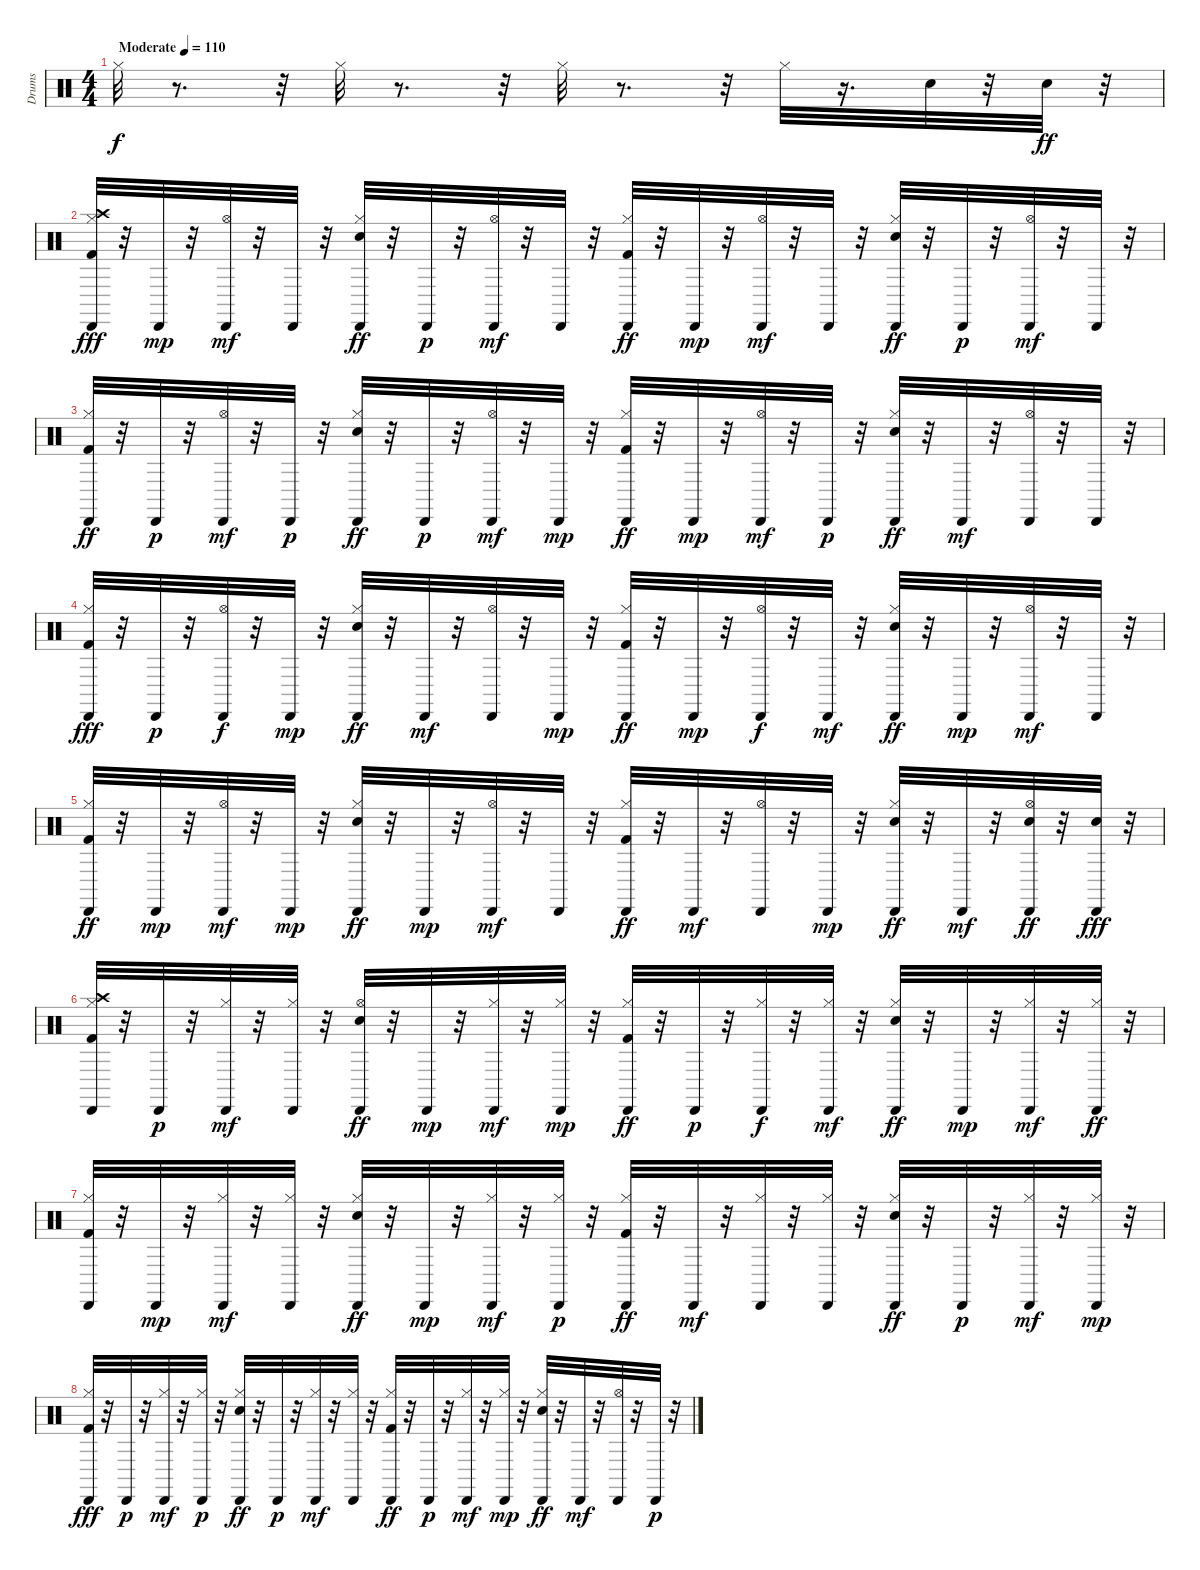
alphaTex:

\track ("Drums" "Drums") {instrument percussion}
\staff {score}
\articulation defaults
\ts (4 4)
\tempo (110 "Moderate")
\clef neutral
\ks c "Hi-Hat (closed)".32{dy f}
r.8{d} r.32 "Hi-Hat (closed)".32 r.8{d} r.32 "Hi-Hat (closed)".32 r.8{d} r.32 "Hi-Hat (closed)".32 r.16{d} "Snare (hit) 2".32 r.32 "Snare (hit) 2".32{dy ff} r.32 |
("Cabasa (hit)" "Crash high (hit)" "Hi-Hat (closed)" "Kick (hit) 2").32{dy fff} r.32 "Cabasa (hit)".32{dy mp} r.32 ("Hi-Hat (open)" "Cabasa (hit)").32{dy mf} r.32 "Cabasa (hit)".32 r.32 ("Cabasa (hit)" "Hi-Hat (closed)" "Snare (hit) 2").32{dy ff} r.32 "Cabasa (hit)".32{dy p} r.32 ("Hi-Hat (open)" "Cabasa (hit)").32{dy mf} r.32 "Cabasa (hit)".32 r.32 ("Cabasa (hit)" "Hi-Hat (closed)" "Kick (hit) 2").32{dy ff} r.32 "Cabasa (hit)".32{dy mp} r.32 ("Hi-Hat (open)" "Cabasa (hit)").32{dy mf} r.32 "Cabasa (hit)".32 r.32 ("Cabasa (hit)" "Hi-Hat (closed)" "Snare (hit) 2").32{dy ff} r.32 "Cabasa (hit)".32{dy p} r.32 ("Hi-Hat (open)" "Cabasa (hit)").32{dy mf} r.32 "Cabasa (hit)".32 r.32 |
("Cabasa (hit)" "Hi-Hat (closed)" "Kick (hit) 2").32{dy ff} r.32 "Cabasa (hit)".32{dy p} r.32 ("Hi-Hat (open)" "Cabasa (hit)").32{dy mf} r.32 "Cabasa (hit)".32{dy p} r.32 ("Cabasa (hit)" "Hi-Hat (closed)" "Snare (hit) 2").32{dy ff} r.32 "Cabasa (hit)".32{dy p} r.32 ("Hi-Hat (open)" "Cabasa (hit)").32{dy mf} r.32 "Cabasa (hit)".32{dy mp} r.32 ("Cabasa (hit)" "Hi-Hat (closed)" "Kick (hit) 2").32{dy ff} r.32 "Cabasa (hit)".32{dy mp} r.32 ("Hi-Hat (open)" "Cabasa (hit)").32{dy mf} r.32 "Cabasa (hit)".32{dy p} r.32 ("Cabasa (hit)" "Hi-Hat (closed)" "Snare (hit) 2").32{dy ff} r.32 "Cabasa (hit)".32{dy mf} r.32 ("Hi-Hat (open)" "Cabasa (hit)").32 r.32 "Cabasa (hit)".32 r.32 |
("Cabasa (hit)" "Hi-Hat (closed)" "Kick (hit) 2").32{dy fff} r.32 "Cabasa (hit)".32{dy p} r.32 ("Hi-Hat (open)" "Cabasa (hit)").32{dy f} r.32 "Cabasa (hit)".32{dy mp} r.32 ("Cabasa (hit)" "Hi-Hat (closed)" "Snare (hit) 2").32{dy ff} r.32 "Cabasa (hit)".32{dy mf} r.32 ("Hi-Hat (open)" "Cabasa (hit)").32 r.32 "Cabasa (hit)".32{dy mp} r.32 ("Cabasa (hit)" "Hi-Hat (closed)" "Kick (hit) 2").32{dy ff} r.32 "Cabasa (hit)".32{dy mp} r.32 ("Hi-Hat (open)" "Cabasa (hit)").32{dy f} r.32 "Cabasa (hit)".32{dy mf} r.32 ("Cabasa (hit)" "Hi-Hat (closed)" "Snare (hit) 2").32{dy ff} r.32 "Cabasa (hit)".32{dy mp} r.32 ("Hi-Hat (open)" "Cabasa (hit)").32{dy mf} r.32 "Cabasa (hit)".32 r.32 |
("Cabasa (hit)" "Hi-Hat (closed)" "Kick (hit) 2").32{dy ff} r.32 "Cabasa (hit)".32{dy mp} r.32 ("Hi-Hat (open)" "Cabasa (hit)").32{dy mf} r.32 "Cabasa (hit)".32{dy mp} r.32 ("Cabasa (hit)" "Hi-Hat (closed)" "Snare (hit) 2").32{dy ff} r.32 "Cabasa (hit)".32{dy mp} r.32 ("Hi-Hat (open)" "Cabasa (hit)").32{dy mf} r.32 "Cabasa (hit)".32 r.32 ("Cabasa (hit)" "Hi-Hat (closed)" "Kick (hit) 2").32{dy ff} r.32 "Cabasa (hit)".32{dy mf} r.32 ("Hi-Hat (open)" "Cabasa (hit)").32 r.32 "Cabasa (hit)".32{dy mp} r.32 ("Cabasa (hit)" "Hi-Hat (closed)" "Snare (hit) 2").32{dy ff} r.32 "Cabasa (hit)".32{dy mf} r.32 ("Hi-Hat (open)" "Cabasa (hit)" "Snare (hit) 2").32{dy ff} r.32 ("Cabasa (hit)" "Snare (hit) 2").32{dy fff} r.32 |
("Cabasa (hit)" "Crash high (hit)" "Hi-Hat (closed)" "Kick (hit) 2").32 r.32 "Cabasa (hit)".32{dy p} r.32 ("Cabasa (hit)" "Hi-Hat (closed)").32{dy mf} r.32 ("Cabasa (hit)" "Hi-Hat (closed)").32 r.32 ("Hi-Hat (open)" "Cabasa (hit)" "Snare (hit) 2").32{dy ff} r.32 "Cabasa (hit)".32{dy mp} r.32 ("Cabasa (hit)" "Hi-Hat (closed)").32{dy mf} r.32 ("Cabasa (hit)" "Hi-Hat (closed)").32{dy mp} r.32 ("Cabasa (hit)" "Hi-Hat (closed)" "Kick (hit) 2").32{dy ff} r.32 "Cabasa (hit)".32{dy p} r.32 ("Cabasa (hit)" "Hi-Hat (closed)").32{dy f} r.32 ("Cabasa (hit)" "Hi-Hat (closed)").32{dy mf} r.32 ("Cabasa (hit)" "Hi-Hat (closed)" "Snare (hit) 2").32{dy ff} r.32 "Cabasa (hit)".32{dy mp} r.32 ("Cabasa (hit)" "Hi-Hat (closed)").32{dy mf} r.32 ("Cabasa (hit)" "Hi-Hat (closed)").32{dy ff} r.32 |
("Cabasa (hit)" "Hi-Hat (closed)" "Kick (hit) 2").32 r.32 "Cabasa (hit)".32{dy mp} r.32 ("Cabasa (hit)" "Hi-Hat (closed)").32{dy mf} r.32 ("Cabasa (hit)" "Hi-Hat (closed)").32 r.32 ("Cabasa (hit)" "Hi-Hat (closed)" "Snare (hit) 2").32{dy ff} r.32 "Cabasa (hit)".32{dy mp} r.32 ("Cabasa (hit)" "Hi-Hat (closed)").32{dy mf} r.32 ("Cabasa (hit)" "Hi-Hat (closed)").32{dy p} r.32 ("Cabasa (hit)" "Hi-Hat (closed)" "Kick (hit) 2").32{dy ff} r.32 "Cabasa (hit)".32{dy mf} r.32 ("Cabasa (hit)" "Hi-Hat (closed)").32 r.32 ("Cabasa (hit)" "Hi-Hat (closed)").32 r.32 ("Cabasa (hit)" "Hi-Hat (closed)" "Snare (hit) 2").32{dy ff} r.32 "Cabasa (hit)".32{dy p} r.32 ("Cabasa (hit)" "Hi-Hat (closed)").32{dy mf} r.32 ("Cabasa (hit)" "Hi-Hat (closed)").32{dy mp} r.32 |
("Cabasa (hit)" "Hi-Hat (closed)" "Kick (hit) 2").32{dy fff} r.32 "Cabasa (hit)".32{dy p} r.32 ("Cabasa (hit)" "Hi-Hat (closed)").32{dy mf} r.32 ("Cabasa (hit)" "Hi-Hat (closed)").32{dy p} r.32 ("Cabasa (hit)" "Hi-Hat (closed)" "Snare (hit) 2").32{dy ff} r.32 "Cabasa (hit)".32{dy p} r.32 ("Cabasa (hit)" "Hi-Hat (closed)").32{dy mf} r.32 ("Cabasa (hit)" "Hi-Hat (closed)").32 r.32 ("Cabasa (hit)" "Hi-Hat (closed)" "Kick (hit) 2").32{dy ff} r.32 "Cabasa (hit)".32{dy p} r.32 ("Cabasa (hit)" "Hi-Hat (closed)").32{dy mf} r.32 ("Cabasa (hit)" "Hi-Hat (closed)").32{dy mp} r.32 ("Cabasa (hit)" "Hi-Hat (closed)" "Snare (hit) 2").32{dy ff} r.32 "Cabasa (hit)".32{dy mf} r.32 ("Hi-Hat (open)" "Cabasa (hit)").32 r.32 "Cabasa (hit)".32{dy p} r.32
